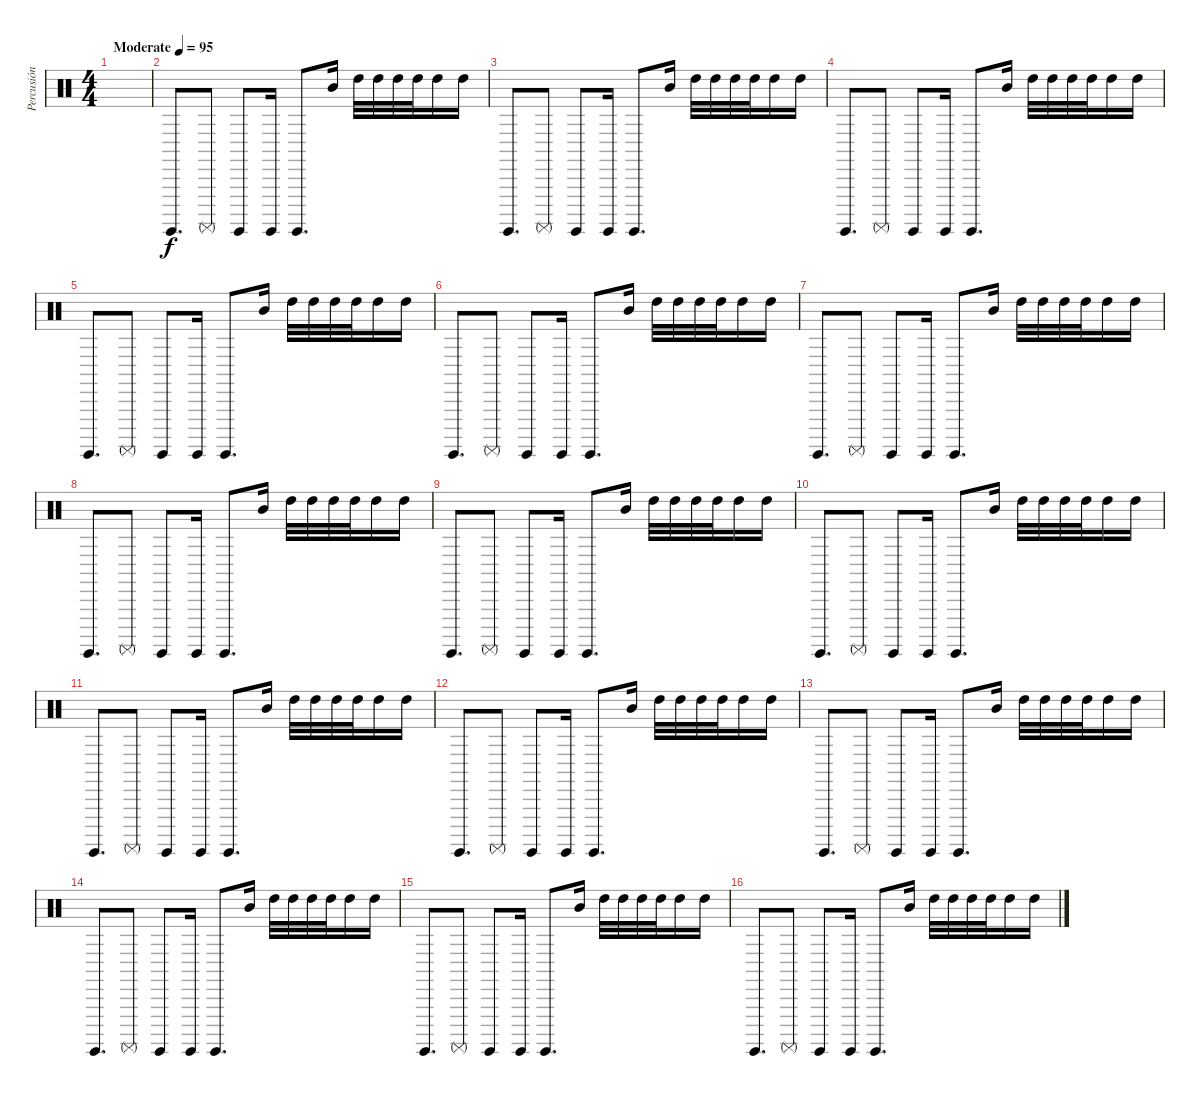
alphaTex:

\track ("Percusión - Leonardo Muñoz" "Percusión ") {instrument percussion}
\staff {score}
\articulation defaults
\ts (4 4)
\tempo (95 "Moderate")
\clef neutral
\ks c
|
"Surdo (hit)".8{d} "Surdo (mute)".8 "Surdo (hit)".8 "Surdo (hit)".16 "Surdo (hit)".8{d} "Mid Tom (hit)".16 "High Tom (hit)".32 "High Tom (hit)".32 "High Tom (hit)".32 "High Tom (hit)".32 "High Tom (hit)".16 "High Tom (hit)".16 |
"Surdo (hit)".8{d} "Surdo (mute)".8 "Surdo (hit)".8 "Surdo (hit)".16 "Surdo (hit)".8{d} "Mid Tom (hit)".16 "High Tom (hit)".32 "High Tom (hit)".32 "High Tom (hit)".32 "High Tom (hit)".32 "High Tom (hit)".16 "High Tom (hit)".16 |
"Surdo (hit)".8{d} "Surdo (mute)".8 "Surdo (hit)".8 "Surdo (hit)".16 "Surdo (hit)".8{d} "Mid Tom (hit)".16 "High Tom (hit)".32 "High Tom (hit)".32 "High Tom (hit)".32 "High Tom (hit)".32 "High Tom (hit)".16 "High Tom (hit)".16 |
"Surdo (hit)".8{d} "Surdo (mute)".8 "Surdo (hit)".8 "Surdo (hit)".16 "Surdo (hit)".8{d} "Mid Tom (hit)".16 "High Tom (hit)".32 "High Tom (hit)".32 "High Tom (hit)".32 "High Tom (hit)".32 "High Tom (hit)".16 "High Tom (hit)".16 |
"Surdo (hit)".8{d} "Surdo (mute)".8 "Surdo (hit)".8 "Surdo (hit)".16 "Surdo (hit)".8{d} "Mid Tom (hit)".16 "High Tom (hit)".32 "High Tom (hit)".32 "High Tom (hit)".32 "High Tom (hit)".32 "High Tom (hit)".16 "High Tom (hit)".16 |
"Surdo (hit)".8{d} "Surdo (mute)".8 "Surdo (hit)".8 "Surdo (hit)".16 "Surdo (hit)".8{d} "Mid Tom (hit)".16 "High Tom (hit)".32 "High Tom (hit)".32 "High Tom (hit)".32 "High Tom (hit)".32 "High Tom (hit)".16 "High Tom (hit)".16 |
"Surdo (hit)".8{d} "Surdo (mute)".8 "Surdo (hit)".8 "Surdo (hit)".16 "Surdo (hit)".8{d} "Mid Tom (hit)".16 "High Tom (hit)".32 "High Tom (hit)".32 "High Tom (hit)".32 "High Tom (hit)".32 "High Tom (hit)".16 "High Tom (hit)".16 |
"Surdo (hit)".8{d} "Surdo (mute)".8 "Surdo (hit)".8 "Surdo (hit)".16 "Surdo (hit)".8{d} "Mid Tom (hit)".16 "High Tom (hit)".32 "High Tom (hit)".32 "High Tom (hit)".32 "High Tom (hit)".32 "High Tom (hit)".16 "High Tom (hit)".16 |
"Surdo (hit)".8{d} "Surdo (mute)".8 "Surdo (hit)".8 "Surdo (hit)".16 "Surdo (hit)".8{d} "Mid Tom (hit)".16 "High Tom (hit)".32 "High Tom (hit)".32 "High Tom (hit)".32 "High Tom (hit)".32 "High Tom (hit)".16 "High Tom (hit)".16 |
"Surdo (hit)".8{d} "Surdo (mute)".8 "Surdo (hit)".8 "Surdo (hit)".16 "Surdo (hit)".8{d} "Mid Tom (hit)".16 "High Tom (hit)".32 "High Tom (hit)".32 "High Tom (hit)".32 "High Tom (hit)".32 "High Tom (hit)".16 "High Tom (hit)".16 |
"Surdo (hit)".8{d} "Surdo (mute)".8 "Surdo (hit)".8 "Surdo (hit)".16 "Surdo (hit)".8{d} "Mid Tom (hit)".16 "High Tom (hit)".32 "High Tom (hit)".32 "High Tom (hit)".32 "High Tom (hit)".32 "High Tom (hit)".16 "High Tom (hit)".16 |
"Surdo (hit)".8{d} "Surdo (mute)".8 "Surdo (hit)".8 "Surdo (hit)".16 "Surdo (hit)".8{d} "Mid Tom (hit)".16 "High Tom (hit)".32 "High Tom (hit)".32 "High Tom (hit)".32 "High Tom (hit)".32 "High Tom (hit)".16 "High Tom (hit)".16 |
"Surdo (hit)".8{d} "Surdo (mute)".8 "Surdo (hit)".8 "Surdo (hit)".16 "Surdo (hit)".8{d} "Mid Tom (hit)".16 "High Tom (hit)".32 "High Tom (hit)".32 "High Tom (hit)".32 "High Tom (hit)".32 "High Tom (hit)".16 "High Tom (hit)".16 |
"Surdo (hit)".8{d} "Surdo (mute)".8 "Surdo (hit)".8 "Surdo (hit)".16 "Surdo (hit)".8{d} "Mid Tom (hit)".16 "High Tom (hit)".32 "High Tom (hit)".32 "High Tom (hit)".32 "High Tom (hit)".32 "High Tom (hit)".16 "High Tom (hit)".16 |
"Surdo (hit)".8{d} "Surdo (mute)".8 "Surdo (hit)".8 "Surdo (hit)".16 "Surdo (hit)".8{d} "Mid Tom (hit)".16 "High Tom (hit)".32 "High Tom (hit)".32 "High Tom (hit)".32 "High Tom (hit)".32 "High Tom (hit)".16 "High Tom (hit)".16
